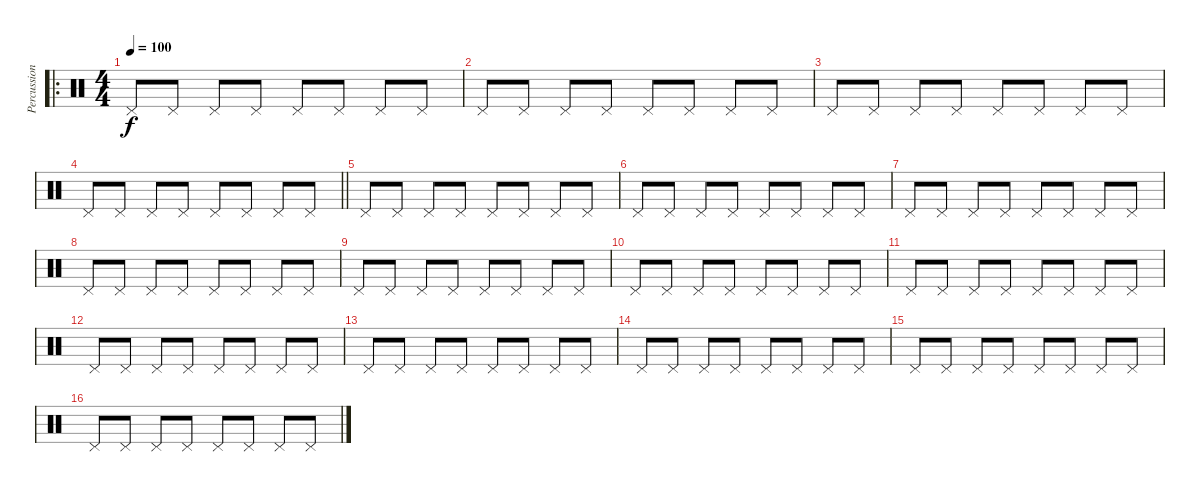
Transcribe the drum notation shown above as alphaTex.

\track ("Percussions" "Percussion") {instrument percussion}
\staff {score}
\articulation defaults
\ro
\ts (4 4)
\tempo 100
\clef neutral
\ks c "Pedal Hi-Hat (hit)".8{dy f} "Pedal Hi-Hat (hit)".8 "Pedal Hi-Hat (hit)".8 "Pedal Hi-Hat (hit)".8 "Pedal Hi-Hat (hit)".8 "Pedal Hi-Hat (hit)".8 "Pedal Hi-Hat (hit)".8 "Pedal Hi-Hat (hit)".8
|
"Pedal Hi-Hat (hit)".8 "Pedal Hi-Hat (hit)".8 "Pedal Hi-Hat (hit)".8 "Pedal Hi-Hat (hit)".8 "Pedal Hi-Hat (hit)".8 "Pedal Hi-Hat (hit)".8 "Pedal Hi-Hat (hit)".8 "Pedal Hi-Hat (hit)".8 |
"Pedal Hi-Hat (hit)".8 "Pedal Hi-Hat (hit)".8 "Pedal Hi-Hat (hit)".8 "Pedal Hi-Hat (hit)".8 "Pedal Hi-Hat (hit)".8 "Pedal Hi-Hat (hit)".8 "Pedal Hi-Hat (hit)".8 "Pedal Hi-Hat (hit)".8 |
\barLineRight lightlight "Pedal Hi-Hat (hit)".8 "Pedal Hi-Hat (hit)".8 "Pedal Hi-Hat (hit)".8 "Pedal Hi-Hat (hit)".8 "Pedal Hi-Hat (hit)".8 "Pedal Hi-Hat (hit)".8 "Pedal Hi-Hat (hit)".8 "Pedal Hi-Hat (hit)".8
|
"Pedal Hi-Hat (hit)".8 "Pedal Hi-Hat (hit)".8 "Pedal Hi-Hat (hit)".8 "Pedal Hi-Hat (hit)".8 "Pedal Hi-Hat (hit)".8 "Pedal Hi-Hat (hit)".8 "Pedal Hi-Hat (hit)".8 "Pedal Hi-Hat (hit)".8 |
"Pedal Hi-Hat (hit)".8 "Pedal Hi-Hat (hit)".8 "Pedal Hi-Hat (hit)".8 "Pedal Hi-Hat (hit)".8 "Pedal Hi-Hat (hit)".8 "Pedal Hi-Hat (hit)".8 "Pedal Hi-Hat (hit)".8 "Pedal Hi-Hat (hit)".8 |
"Pedal Hi-Hat (hit)".8 "Pedal Hi-Hat (hit)".8 "Pedal Hi-Hat (hit)".8 "Pedal Hi-Hat (hit)".8 "Pedal Hi-Hat (hit)".8 "Pedal Hi-Hat (hit)".8 "Pedal Hi-Hat (hit)".8 "Pedal Hi-Hat (hit)".8 |
"Pedal Hi-Hat (hit)".8 "Pedal Hi-Hat (hit)".8 "Pedal Hi-Hat (hit)".8 "Pedal Hi-Hat (hit)".8 "Pedal Hi-Hat (hit)".8 "Pedal Hi-Hat (hit)".8 "Pedal Hi-Hat (hit)".8 "Pedal Hi-Hat (hit)".8 |
"Pedal Hi-Hat (hit)".8 "Pedal Hi-Hat (hit)".8 "Pedal Hi-Hat (hit)".8 "Pedal Hi-Hat (hit)".8 "Pedal Hi-Hat (hit)".8 "Pedal Hi-Hat (hit)".8 "Pedal Hi-Hat (hit)".8 "Pedal Hi-Hat (hit)".8 |
"Pedal Hi-Hat (hit)".8 "Pedal Hi-Hat (hit)".8 "Pedal Hi-Hat (hit)".8 "Pedal Hi-Hat (hit)".8 "Pedal Hi-Hat (hit)".8 "Pedal Hi-Hat (hit)".8 "Pedal Hi-Hat (hit)".8 "Pedal Hi-Hat (hit)".8 |
"Pedal Hi-Hat (hit)".8 "Pedal Hi-Hat (hit)".8 "Pedal Hi-Hat (hit)".8 "Pedal Hi-Hat (hit)".8 "Pedal Hi-Hat (hit)".8 "Pedal Hi-Hat (hit)".8 "Pedal Hi-Hat (hit)".8 "Pedal Hi-Hat (hit)".8 |
"Pedal Hi-Hat (hit)".8 "Pedal Hi-Hat (hit)".8 "Pedal Hi-Hat (hit)".8 "Pedal Hi-Hat (hit)".8 "Pedal Hi-Hat (hit)".8 "Pedal Hi-Hat (hit)".8 "Pedal Hi-Hat (hit)".8 "Pedal Hi-Hat (hit)".8 |
"Pedal Hi-Hat (hit)".8 "Pedal Hi-Hat (hit)".8 "Pedal Hi-Hat (hit)".8 "Pedal Hi-Hat (hit)".8 "Pedal Hi-Hat (hit)".8 "Pedal Hi-Hat (hit)".8 "Pedal Hi-Hat (hit)".8 "Pedal Hi-Hat (hit)".8 |
"Pedal Hi-Hat (hit)".8 "Pedal Hi-Hat (hit)".8 "Pedal Hi-Hat (hit)".8 "Pedal Hi-Hat (hit)".8 "Pedal Hi-Hat (hit)".8 "Pedal Hi-Hat (hit)".8 "Pedal Hi-Hat (hit)".8 "Pedal Hi-Hat (hit)".8 |
"Pedal Hi-Hat (hit)".8 "Pedal Hi-Hat (hit)".8 "Pedal Hi-Hat (hit)".8 "Pedal Hi-Hat (hit)".8 "Pedal Hi-Hat (hit)".8 "Pedal Hi-Hat (hit)".8 "Pedal Hi-Hat (hit)".8 "Pedal Hi-Hat (hit)".8 |
"Pedal Hi-Hat (hit)".8 "Pedal Hi-Hat (hit)".8 "Pedal Hi-Hat (hit)".8 "Pedal Hi-Hat (hit)".8 "Pedal Hi-Hat (hit)".8 "Pedal Hi-Hat (hit)".8 "Pedal Hi-Hat (hit)".8 "Pedal Hi-Hat (hit)".8
